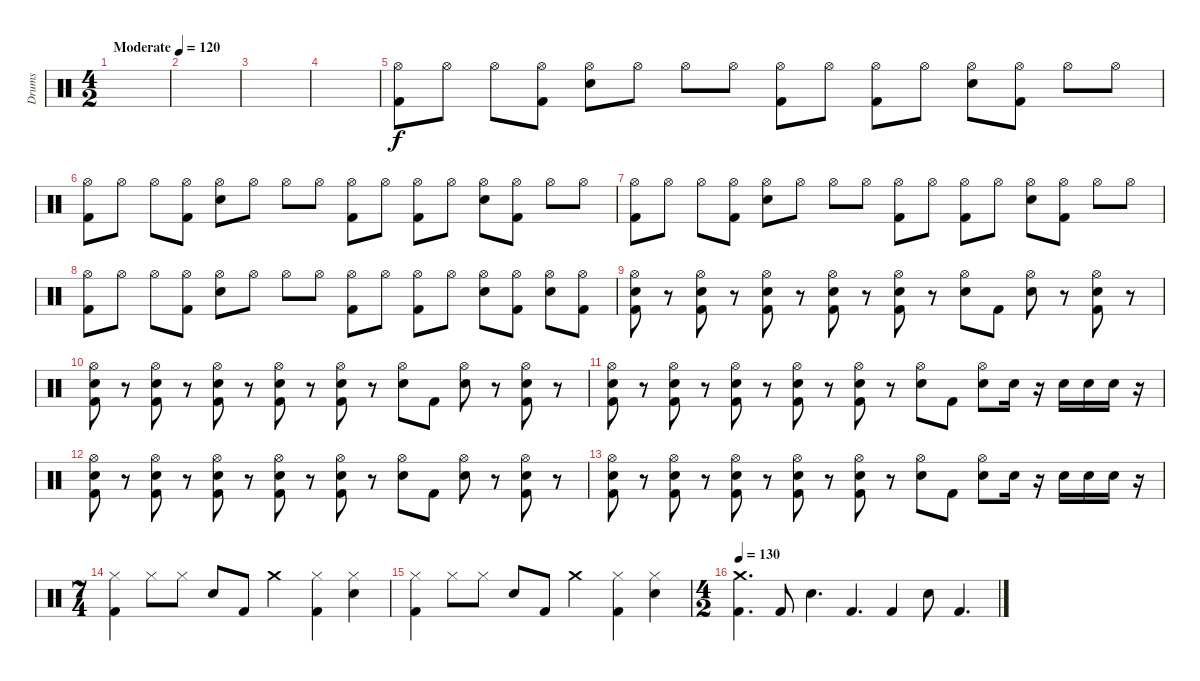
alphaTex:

\track ("Drums" "Drums") {instrument percussion}
\staff {score}
\articulation defaults
\ts (4 2)
\tempo (120 "Moderate")
\tempo 130
\tempo (120 "Moderate")
\clef neutral
\ks c
|
|
|
|
("Hi-Hat (open)" "Kick (hit) 2").8 "Hi-Hat (open)".8 "Hi-Hat (open)".8 ("Hi-Hat (open)" "Kick (hit) 2").8 ("Hi-Hat (open)" "Snare (hit) 2").8 "Hi-Hat (open)".8 "Hi-Hat (open)".8 "Hi-Hat (open)".8 ("Hi-Hat (open)" "Kick (hit) 2").8 "Hi-Hat (open)".8 ("Hi-Hat (open)" "Kick (hit) 2").8 "Hi-Hat (open)".8 ("Hi-Hat (open)" "Snare (hit) 2").8 ("Hi-Hat (open)" "Kick (hit) 2").8 "Hi-Hat (open)".8 "Hi-Hat (open)".8 |
("Hi-Hat (open)" "Kick (hit) 2").8 "Hi-Hat (open)".8 "Hi-Hat (open)".8 ("Hi-Hat (open)" "Kick (hit) 2").8 ("Hi-Hat (open)" "Snare (hit) 2").8 "Hi-Hat (open)".8 "Hi-Hat (open)".8 "Hi-Hat (open)".8 ("Hi-Hat (open)" "Kick (hit) 2").8 "Hi-Hat (open)".8 ("Hi-Hat (open)" "Kick (hit) 2").8 "Hi-Hat (open)".8 ("Hi-Hat (open)" "Snare (hit) 2").8 ("Hi-Hat (open)" "Kick (hit) 2").8 "Hi-Hat (open)".8 "Hi-Hat (open)".8 |
("Hi-Hat (open)" "Kick (hit) 2").8 "Hi-Hat (open)".8 "Hi-Hat (open)".8 ("Hi-Hat (open)" "Kick (hit) 2").8 ("Hi-Hat (open)" "Snare (hit) 2").8 "Hi-Hat (open)".8 "Hi-Hat (open)".8 "Hi-Hat (open)".8 ("Hi-Hat (open)" "Kick (hit) 2").8 "Hi-Hat (open)".8 ("Hi-Hat (open)" "Kick (hit) 2").8 "Hi-Hat (open)".8 ("Hi-Hat (open)" "Snare (hit) 2").8 ("Hi-Hat (open)" "Kick (hit) 2").8 "Hi-Hat (open)".8 "Hi-Hat (open)".8 |
("Hi-Hat (open)" "Kick (hit) 2").8 "Hi-Hat (open)".8 "Hi-Hat (open)".8 ("Hi-Hat (open)" "Kick (hit) 2").8 ("Hi-Hat (open)" "Snare (hit) 2").8 "Hi-Hat (open)".8 "Hi-Hat (open)".8 "Hi-Hat (open)".8 ("Hi-Hat (open)" "Kick (hit) 2").8 "Hi-Hat (open)".8 ("Hi-Hat (open)" "Kick (hit) 2").8 "Hi-Hat (open)".8 ("Hi-Hat (open)" "Snare (hit) 2").8 ("Hi-Hat (open)" "Kick (hit) 2").8 ("Hi-Hat (open)" "Snare (hit) 2").8 ("Hi-Hat (open)" "Kick (hit) 2").8 |
("Kick (hit) 2" "Hi-Hat (open)" "Snare (hit) 2").8 r.8 ("Kick (hit) 2" "Hi-Hat (open)" "Snare (hit) 2").8 r.8 ("Kick (hit) 2" "Hi-Hat (open)" "Snare (hit) 2").8 r.8 ("Kick (hit) 2" "Hi-Hat (open)" "Snare (hit) 2").8 r.8 ("Kick (hit) 2" "Hi-Hat (open)" "Snare (hit) 2").8 r.8 ("Hi-Hat (open)" "Snare (hit) 2").8 "Kick (hit) 2".8 ("Hi-Hat (open)" "Snare (hit) 2").8 r.8 ("Kick (hit) 2" "Hi-Hat (open)" "Snare (hit) 2").8 r.8 |
("Kick (hit) 2" "Hi-Hat (open)" "Snare (hit) 2").8 r.8 ("Kick (hit) 2" "Hi-Hat (open)" "Snare (hit) 2").8 r.8 ("Kick (hit) 2" "Hi-Hat (open)" "Snare (hit) 2").8 r.8 ("Kick (hit) 2" "Hi-Hat (open)" "Snare (hit) 2").8 r.8 ("Kick (hit) 2" "Hi-Hat (open)" "Snare (hit) 2").8 r.8 ("Hi-Hat (open)" "Snare (hit) 2").8 "Kick (hit) 2".8 ("Hi-Hat (open)" "Snare (hit) 2").8 r.8 ("Kick (hit) 2" "Hi-Hat (open)" "Snare (hit) 2").8 r.8 |
("Kick (hit) 2" "Hi-Hat (open)" "Snare (hit) 2").8 r.8 ("Kick (hit) 2" "Hi-Hat (open)" "Snare (hit) 2").8 r.8 ("Kick (hit) 2" "Hi-Hat (open)" "Snare (hit) 2").8 r.8 ("Kick (hit) 2" "Hi-Hat (open)" "Snare (hit) 2").8 r.8 ("Kick (hit) 2" "Hi-Hat (open)" "Snare (hit) 2").8 r.8 ("Hi-Hat (open)" "Snare (hit) 2").8 "Kick (hit) 2".8 ("Hi-Hat (open)" "Snare (hit) 2").8 "Snare (hit) 2".16 r.16 "Snare (hit) 2".16 "Snare (hit) 2".16 "Snare (hit) 2".16 r.16 |
("Kick (hit) 2" "Hi-Hat (open)" "Snare (hit) 2").8 r.8 ("Kick (hit) 2" "Hi-Hat (open)" "Snare (hit) 2").8 r.8 ("Kick (hit) 2" "Hi-Hat (open)" "Snare (hit) 2").8 r.8 ("Kick (hit) 2" "Hi-Hat (open)" "Snare (hit) 2").8 r.8 ("Kick (hit) 2" "Hi-Hat (open)" "Snare (hit) 2").8 r.8 ("Hi-Hat (open)" "Snare (hit) 2").8 "Kick (hit) 2".8 ("Hi-Hat (open)" "Snare (hit) 2").8 r.8 ("Kick (hit) 2" "Hi-Hat (open)" "Snare (hit) 2").8 r.8 |
("Kick (hit) 2" "Hi-Hat (open)" "Snare (hit) 2").8 r.8 ("Kick (hit) 2" "Hi-Hat (open)" "Snare (hit) 2").8 r.8 ("Kick (hit) 2" "Hi-Hat (open)" "Snare (hit) 2").8 r.8 ("Kick (hit) 2" "Hi-Hat (open)" "Snare (hit) 2").8 r.8 ("Kick (hit) 2" "Hi-Hat (open)" "Snare (hit) 2").8 r.8 ("Hi-Hat (open)" "Snare (hit) 2").8 "Kick (hit) 2".8 ("Hi-Hat (open)" "Snare (hit) 2").8 "Snare (hit) 2".16 r.16 "Snare (hit) 2".16 "Snare (hit) 2".16 "Snare (hit) 2".16 r.16 |
\ts (7 4)
("Kick (hit) 2" "Hi-Hat (closed)").4 "Hi-Hat (closed)".8 "Hi-Hat (closed)".8 "Snare (hit) 2".8 "Kick (hit) 2".8 "Crash medium (hit)".2 ("Hi-Hat (closed)" "Kick (hit) 2").4 ("Hi-Hat (closed)" "Snare (hit) 2").4 |
("Kick (hit) 2" "Hi-Hat (closed)").4 "Hi-Hat (closed)".8 "Hi-Hat (closed)".8 "Snare (hit) 2".8 "Kick (hit) 2".8 "Crash medium (hit)".2 ("Hi-Hat (closed)" "Kick (hit) 2").4 ("Hi-Hat (closed)" "Snare (hit) 2").4 |
\ts (4 2)
\tempo 130
("Crash medium (hit)" "Kick (hit) 2").4{d} "Kick (hit) 2".8 "Snare (hit) 2".4{d} "Kick (hit) 2".4{d} "Kick (hit) 2".4 "Snare (hit) 2".8 "Kick (hit) 2".4{d}
